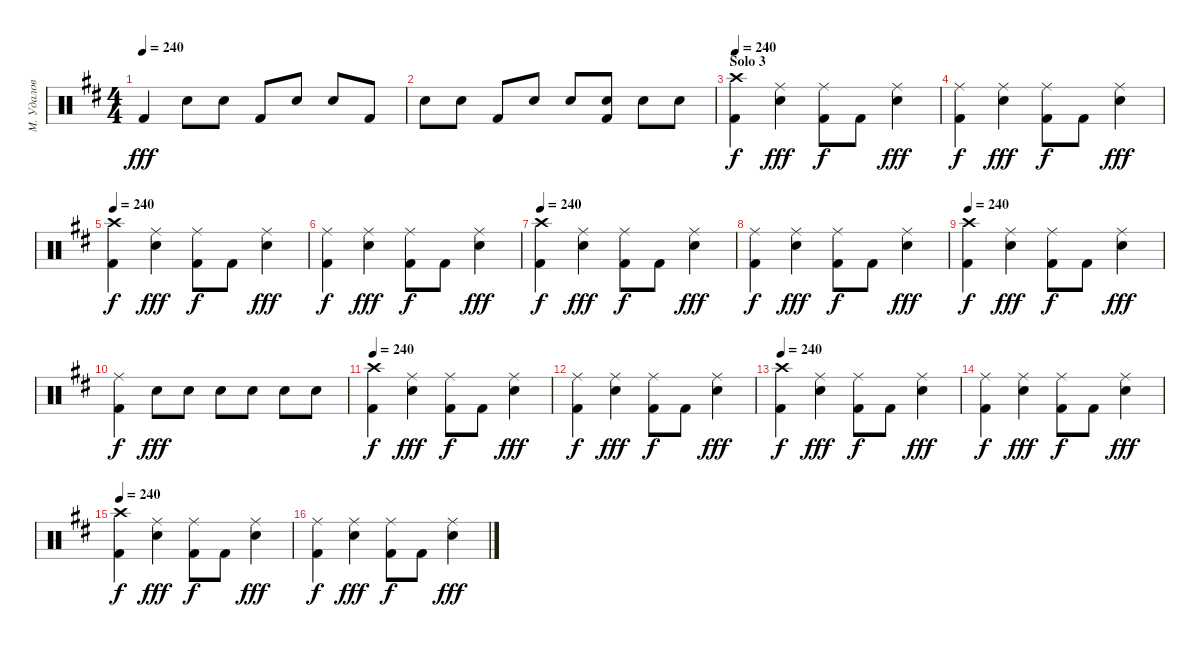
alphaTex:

\track ("М. Удалов" "М. Удалов") {instrument percussion}
\staff {score}
\articulation defaults
\ts (4 4)
\tempo 240
\clef neutral
\ks d "Kick (hit) 2".4{dy fff} "Electric Snare (hit)".8 "Electric Snare (hit)".8 "Kick (hit) 2".8 "Electric Snare (hit)".8 "Electric Snare (hit)".8 "Kick (hit) 2".8
|
"Electric Snare (hit)".8 "Electric Snare (hit)".8 "Kick (hit) 2".8 "Electric Snare (hit)".8 "Electric Snare (hit)".8 ("Electric Snare (hit)" "Kick (hit) 2").8 "Electric Snare (hit)".8 "Electric Snare (hit)".8 |
\section ("" "Solo 3")
\tempo 240
("Crash high (hit)" "Kick (hit) 2").4{dy f} ("Ride (middle)" "Electric Snare (hit)").4{dy fff} ("Ride (middle)" "Kick (hit) 2").8{dy f} "Kick (hit) 2".8 ("Ride (middle)" "Electric Snare (hit)").4{dy fff} |
("Ride (middle)" "Kick (hit) 2").4{dy f} ("Ride (middle)" "Electric Snare (hit)").4{dy fff} ("Ride (middle)" "Kick (hit) 2").8{dy f} "Kick (hit) 2".8 ("Ride (middle)" "Electric Snare (hit)").4{dy fff} |
\tempo 240
("Crash high (hit)" "Kick (hit) 2").4{dy f} ("Ride (middle)" "Electric Snare (hit)").4{dy fff} ("Ride (middle)" "Kick (hit) 2").8{dy f} "Kick (hit) 2".8 ("Ride (middle)" "Electric Snare (hit)").4{dy fff} |
("Ride (middle)" "Kick (hit) 2").4{dy f} ("Ride (middle)" "Electric Snare (hit)").4{dy fff} ("Ride (middle)" "Kick (hit) 2").8{dy f} "Kick (hit) 2".8 ("Ride (middle)" "Electric Snare (hit)").4{dy fff} |
\tempo 240
("Crash high (hit)" "Kick (hit) 2").4{dy f} ("Ride (middle)" "Electric Snare (hit)").4{dy fff} ("Ride (middle)" "Kick (hit) 2").8{dy f} "Kick (hit) 2".8 ("Ride (middle)" "Electric Snare (hit)").4{dy fff} |
("Ride (middle)" "Kick (hit) 2").4{dy f} ("Ride (middle)" "Electric Snare (hit)").4{dy fff} ("Ride (middle)" "Kick (hit) 2").8{dy f} "Kick (hit) 2".8 ("Ride (middle)" "Electric Snare (hit)").4{dy fff} |
\tempo 240
("Crash high (hit)" "Kick (hit) 2").4{dy f} ("Ride (middle)" "Electric Snare (hit)").4{dy fff} ("Ride (middle)" "Kick (hit) 2").8{dy f} "Kick (hit) 2".8 ("Ride (middle)" "Electric Snare (hit)").4{dy fff} |
("Ride (middle)" "Kick (hit) 2").4{dy f} "Electric Snare (hit)".8{dy fff} "Electric Snare (hit)".8 "Electric Snare (hit)".8 "Electric Snare (hit)".8 "Electric Snare (hit)".8 "Electric Snare (hit)".8 |
\tempo 240
("Crash high (hit)" "Kick (hit) 2").4{dy f} ("Ride (middle)" "Electric Snare (hit)").4{dy fff} ("Ride (middle)" "Kick (hit) 2").8{dy f} "Kick (hit) 2".8 ("Ride (middle)" "Electric Snare (hit)").4{dy fff} |
("Ride (middle)" "Kick (hit) 2").4{dy f} ("Ride (middle)" "Electric Snare (hit)").4{dy fff} ("Ride (middle)" "Kick (hit) 2").8{dy f} "Kick (hit) 2".8 ("Ride (middle)" "Electric Snare (hit)").4{dy fff} |
\tempo 240
("Crash high (hit)" "Kick (hit) 2").4{dy f} ("Ride (middle)" "Electric Snare (hit)").4{dy fff} ("Ride (middle)" "Kick (hit) 2").8{dy f} "Kick (hit) 2".8 ("Ride (middle)" "Electric Snare (hit)").4{dy fff} |
("Ride (middle)" "Kick (hit) 2").4{dy f} ("Ride (middle)" "Electric Snare (hit)").4{dy fff} ("Ride (middle)" "Kick (hit) 2").8{dy f} "Kick (hit) 2".8 ("Ride (middle)" "Electric Snare (hit)").4{dy fff} |
\tempo 240
("Crash high (hit)" "Kick (hit) 2").4{dy f} ("Ride (middle)" "Electric Snare (hit)").4{dy fff} ("Ride (middle)" "Kick (hit) 2").8{dy f} "Kick (hit) 2".8 ("Ride (middle)" "Electric Snare (hit)").4{dy fff} |
("Ride (middle)" "Kick (hit) 2").4{dy f} ("Ride (middle)" "Electric Snare (hit)").4{dy fff} ("Ride (middle)" "Kick (hit) 2").8{dy f} "Kick (hit) 2".8 ("Ride (middle)" "Electric Snare (hit)").4{dy fff}
